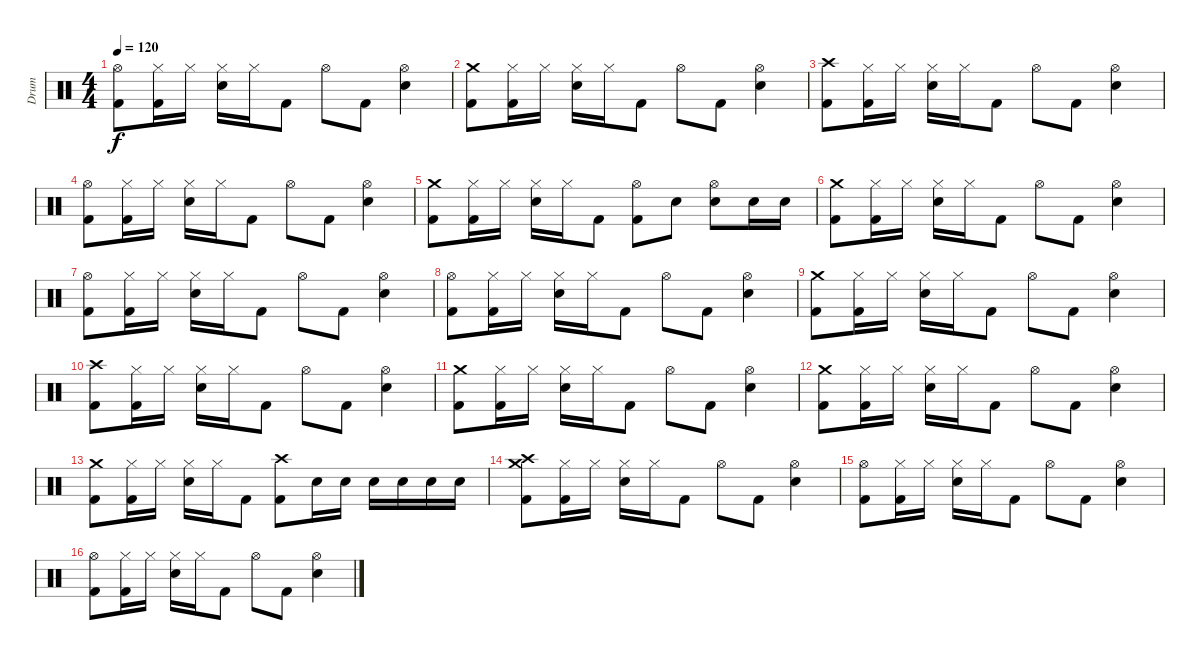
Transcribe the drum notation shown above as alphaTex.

\track ("Drum" "Drum") {instrument percussion}
\staff {score}
\articulation defaults
\ts (4 4)
\tempo 120
\clef neutral
\ks c
("Hi-Hat (open)" "Kick (hit) 2").8{dy f} ("Hi-Hat (closed)" "Kick (hit) 2").16 "Hi-Hat (closed)".16 ("Hi-Hat (closed)" "Electric Snare (hit)").16 "Hi-Hat (closed)".16 "Kick (hit) 2".8 "Hi-Hat (open)".8 "Kick (hit) 2".8 ("Hi-Hat (open)" "Electric Snare (hit)").4 |
("Crash medium (hit)" "Kick (hit) 2").8 ("Hi-Hat (closed)" "Kick (hit) 2").16 "Hi-Hat (closed)".16 ("Hi-Hat (closed)" "Electric Snare (hit)").16 "Hi-Hat (closed)".16 "Kick (hit) 2".8 "Hi-Hat (open)".8 "Kick (hit) 2".8 ("Hi-Hat (open)" "Electric Snare (hit)").4 |
("Crash high (hit)" "Kick (hit) 2").8 ("Hi-Hat (closed)" "Kick (hit) 2").16 "Hi-Hat (closed)".16 ("Hi-Hat (closed)" "Electric Snare (hit)").16 "Hi-Hat (closed)".16 "Kick (hit) 2".8 "Hi-Hat (open)".8 "Kick (hit) 2".8 ("Hi-Hat (open)" "Electric Snare (hit)").4 |
("Hi-Hat (open)" "Kick (hit) 2").8 ("Hi-Hat (closed)" "Kick (hit) 2").16 "Hi-Hat (closed)".16 ("Hi-Hat (closed)" "Electric Snare (hit)").16 "Hi-Hat (closed)".16 "Kick (hit) 2".8 "Hi-Hat (open)".8 "Kick (hit) 2".8 ("Hi-Hat (open)" "Electric Snare (hit)").4 |
("Crash medium (hit)" "Kick (hit) 2").8 ("Hi-Hat (closed)" "Kick (hit) 2").16 "Hi-Hat (closed)".16 ("Hi-Hat (closed)" "Electric Snare (hit)").16 "Hi-Hat (closed)".16 "Kick (hit) 2".8 ("Hi-Hat (open)" "Kick (hit) 2").8 "Electric Snare (hit)".8 ("Hi-Hat (open)" "Electric Snare (hit)").8 "Electric Snare (hit)".16 "Electric Snare (hit)".16 |
("Crash medium (hit)" "Kick (hit) 2").8 ("Hi-Hat (closed)" "Kick (hit) 2").16 "Hi-Hat (closed)".16 ("Hi-Hat (closed)" "Electric Snare (hit)").16 "Hi-Hat (closed)".16 "Kick (hit) 2".8 "Hi-Hat (open)".8 "Kick (hit) 2".8 ("Hi-Hat (open)" "Electric Snare (hit)").4 |
("Hi-Hat (open)" "Kick (hit) 2").8 ("Hi-Hat (closed)" "Kick (hit) 2").16 "Hi-Hat (closed)".16 ("Hi-Hat (closed)" "Electric Snare (hit)").16 "Hi-Hat (closed)".16 "Kick (hit) 2".8 "Hi-Hat (open)".8 "Kick (hit) 2".8 ("Hi-Hat (open)" "Electric Snare (hit)").4 |
("Hi-Hat (open)" "Kick (hit) 2").8 ("Hi-Hat (closed)" "Kick (hit) 2").16 "Hi-Hat (closed)".16 ("Hi-Hat (closed)" "Electric Snare (hit)").16 "Hi-Hat (closed)".16 "Kick (hit) 2".8 "Hi-Hat (open)".8 "Kick (hit) 2".8 ("Hi-Hat (open)" "Electric Snare (hit)").4 |
("Crash medium (hit)" "Kick (hit) 2").8 ("Hi-Hat (closed)" "Kick (hit) 2").16 "Hi-Hat (closed)".16 ("Hi-Hat (closed)" "Electric Snare (hit)").16 "Hi-Hat (closed)".16 "Kick (hit) 2".8 "Hi-Hat (open)".8 "Kick (hit) 2".8 ("Hi-Hat (open)" "Electric Snare (hit)").4 |
("Crash high (hit)" "Kick (hit) 2").8 ("Hi-Hat (closed)" "Kick (hit) 2").16 "Hi-Hat (closed)".16 ("Hi-Hat (closed)" "Electric Snare (hit)").16 "Hi-Hat (closed)".16 "Kick (hit) 2".8 "Hi-Hat (open)".8 "Kick (hit) 2".8 ("Hi-Hat (open)" "Electric Snare (hit)").4 |
("Crash medium (hit)" "Kick (hit) 2").8 ("Hi-Hat (closed)" "Kick (hit) 2").16 "Hi-Hat (closed)".16 ("Hi-Hat (closed)" "Electric Snare (hit)").16 "Hi-Hat (closed)".16 "Kick (hit) 2".8 "Hi-Hat (open)".8 "Kick (hit) 2".8 ("Hi-Hat (open)" "Electric Snare (hit)").4 |
("Crash medium (hit)" "Kick (hit) 2").8 ("Hi-Hat (closed)" "Kick (hit) 2").16 "Hi-Hat (closed)".16 ("Hi-Hat (closed)" "Electric Snare (hit)").16 "Hi-Hat (closed)".16 "Kick (hit) 2".8 "Hi-Hat (open)".8 "Kick (hit) 2".8 ("Hi-Hat (open)" "Electric Snare (hit)").4 |
("Crash medium (hit)" "Kick (hit) 2").8 ("Hi-Hat (closed)" "Kick (hit) 2").16 "Hi-Hat (closed)".16 ("Hi-Hat (closed)" "Electric Snare (hit)").16 "Hi-Hat (closed)".16 "Kick (hit) 2".8 ("Crash high (hit)" "Kick (hit) 2").8 "Electric Snare (hit)".16 "Electric Snare (hit)".16 "Electric Snare (hit)".16 "Electric Snare (hit)".16 "Electric Snare (hit)".16 "Electric Snare (hit)".16 |
("Crash medium (hit)" "Crash high (hit)" "Kick (hit) 2").8 ("Hi-Hat (closed)" "Kick (hit) 2").16 "Hi-Hat (closed)".16 ("Hi-Hat (closed)" "Electric Snare (hit)").16 "Hi-Hat (closed)".16 "Kick (hit) 2".8 "Hi-Hat (open)".8 "Kick (hit) 2".8 ("Hi-Hat (open)" "Electric Snare (hit)").4 |
("Hi-Hat (open)" "Kick (hit) 2").8 ("Hi-Hat (closed)" "Kick (hit) 2").16 "Hi-Hat (closed)".16 ("Hi-Hat (closed)" "Electric Snare (hit)").16 "Hi-Hat (closed)".16 "Kick (hit) 2".8 "Hi-Hat (open)".8 "Kick (hit) 2".8 ("Hi-Hat (open)" "Electric Snare (hit)").4 |
("Hi-Hat (open)" "Kick (hit) 2").8 ("Hi-Hat (closed)" "Kick (hit) 2").16 "Hi-Hat (closed)".16 ("Hi-Hat (closed)" "Electric Snare (hit)").16 "Hi-Hat (closed)".16 "Kick (hit) 2".8 "Hi-Hat (open)".8 "Kick (hit) 2".8 ("Hi-Hat (open)" "Electric Snare (hit)").4
